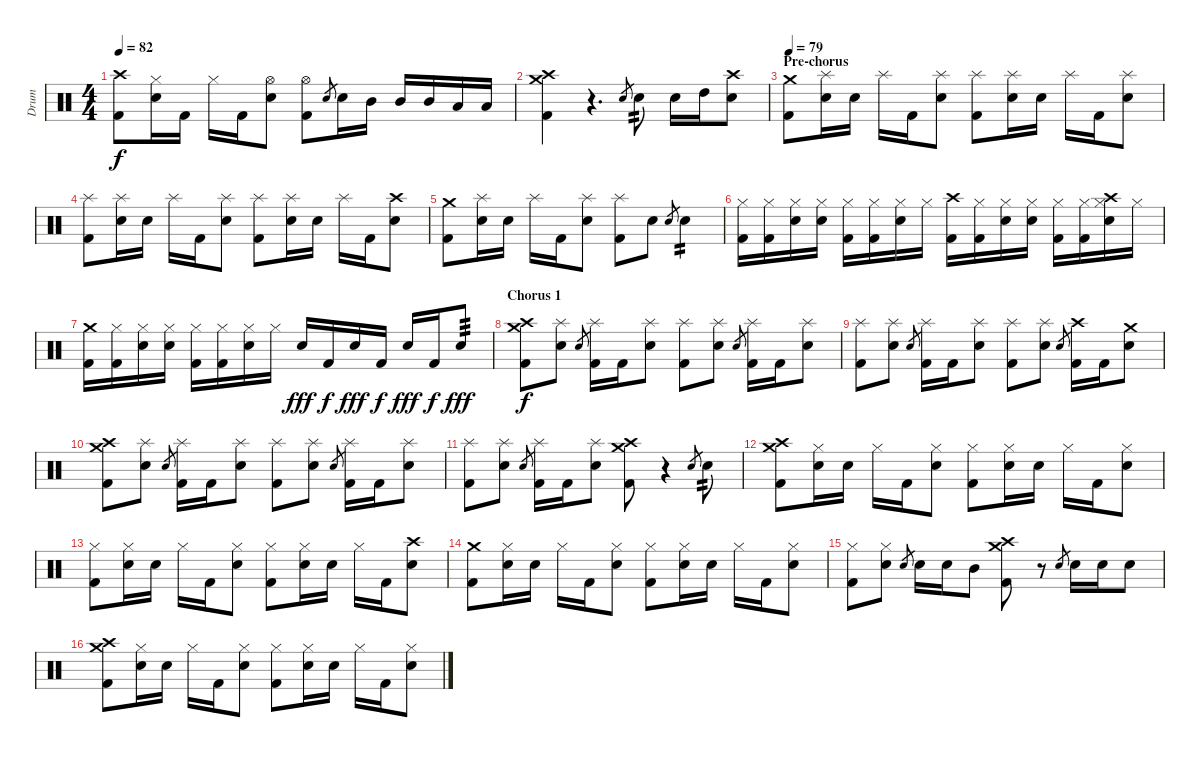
\track ("Drum" "Drum") {instrument percussion}
\staff {score}
\articulation defaults
\ts (4 4)
\tempo 82
\clef neutral
\ks c
("Kick (hit) 2" "Crash high (hit)").8{dy f} ("Hi-Hat (closed)" "Electric Snare (hit)").16 "Kick (hit) 2".16 "Hi-Hat (closed)".16 "Kick (hit) 2".16 ("Hi-Hat (open)" "Electric Snare (hit)").8 ("Hi-Hat (open)" "Kick (hit) 2").8 "Electric Snare (hit)".8{gr} "Electric Snare (hit)".16 "Mid Tom (hit)".16 "Mid Tom (hit)".16 "Mid Tom (hit)".16 "Low Tom (hit)".16 "Low Tom (hit)".16 |
("Kick (hit) 2" "Crash high (hit)" "Crash medium (hit)").4 r.4{d} "Electric Snare (hit)".8{gr} "Electric Snare (hit)".8{tp 2} "Electric Snare (hit)".16 "High Tom (hit)".16 ("Electric Snare (hit)" "Crash high (hit)").8 |
\section ("" "Pre-chorus ")
\tempo 79
("Kick (hit) 2" "Crash medium (hit)").8 ("Splash (hit)" "Electric Snare (hit)").16 "Electric Snare (hit)".16 "Splash (hit)".16 "Kick (hit) 2".16 ("Splash (hit)" "Electric Snare (hit)").8 ("Splash (hit)" "Kick (hit) 2").8 ("Splash (hit)" "Electric Snare (hit)").16 "Electric Snare (hit)".16 "Splash (hit)".16 "Kick (hit) 2".16 ("Splash (hit)" "Electric Snare (hit)").8 |
("Splash (hit)" "Kick (hit) 2").8 ("Splash (hit)" "Electric Snare (hit)").16 "Electric Snare (hit)".16 "Splash (hit)".16 "Kick (hit) 2".16 ("Splash (hit)" "Electric Snare (hit)").8 ("Splash (hit)" "Kick (hit) 2").8 ("Splash (hit)" "Electric Snare (hit)").16 "Electric Snare (hit)".16 "Splash (hit)".16 "Kick (hit) 2".16 ("Electric Snare (hit)" "Crash high (hit)").8 |
("Kick (hit) 2" "Crash medium (hit)").8 ("Splash (hit)" "Electric Snare (hit)").16 "Electric Snare (hit)".16 "Splash (hit)".16 "Kick (hit) 2".16 ("Splash (hit)" "Electric Snare (hit)").8 ("Splash (hit)" "Kick (hit) 2").8 "Electric Snare (hit)".8 "Electric Snare (hit)".8{gr} "Electric Snare (hit)".4{tp 2} |
("Hi-Hat (closed)" "Kick (hit) 2").16 ("Hi-Hat (closed)" "Kick (hit) 2").16 ("Hi-Hat (closed)" "Electric Snare (hit)").16 ("Hi-Hat (closed)" "Electric Snare (hit)").16 ("Hi-Hat (closed)" "Kick (hit) 2").16 ("Hi-Hat (closed)" "Kick (hit) 2").16 ("Hi-Hat (closed)" "Electric Snare (hit)").16 "Hi-Hat (closed)".16 ("Kick (hit) 2" "Crash high (hit)").16 ("Hi-Hat (closed)" "Kick (hit) 2").16 ("Hi-Hat (closed)" "Electric Snare (hit)").16 ("Hi-Hat (closed)" "Electric Snare (hit)").16 ("Hi-Hat (closed)" "Kick (hit) 2").16 ("Hi-Hat (closed)" "Kick (hit) 2").16 ("Hi-Hat (closed)" "Electric Snare (hit)" "Crash high (hit)").16 "Hi-Hat (closed)".16 |
("Kick (hit) 2" "Crash medium (hit)").16 ("Hi-Hat (closed)" "Kick (hit) 2").16 ("Hi-Hat (closed)" "Electric Snare (hit)").16 ("Hi-Hat (closed)" "Electric Snare (hit)").16 ("Hi-Hat (closed)" "Kick (hit) 2").16 ("Hi-Hat (closed)" "Kick (hit) 2").16 ("Hi-Hat (closed)" "Electric Snare (hit)").16 "Hi-Hat (closed)".16 "Electric Snare (hit)".16{dy fff} "Kick (hit) 2".16{dy f} "Electric Snare (hit)".16{dy fff} "Kick (hit) 2".16{dy f} "Electric Snare (hit)".16{dy fff} "Kick (hit) 2".16{dy f} "Electric Snare (hit)".8{tp 3 dy fff} |
\section ("" "Chorus 1")
("Kick (hit) 2" "Crash high (hit)" "Crash medium (hit)").8{dy f} ("Splash (hit)" "Electric Snare (hit)").8 "Electric Snare (hit)".8{gr} ("Splash (hit)" "Kick (hit) 2").16 "Kick (hit) 2".16 ("Splash (hit)" "Electric Snare (hit)").8 ("Splash (hit)" "Kick (hit) 2").8 ("Splash (hit)" "Electric Snare (hit)").8 "Electric Snare (hit)".8{gr} ("Splash (hit)" "Kick (hit) 2").16 "Kick (hit) 2".16 ("Splash (hit)" "Electric Snare (hit)").8 |
("Splash (hit)" "Kick (hit) 2").8 ("Splash (hit)" "Electric Snare (hit)").8 "Electric Snare (hit)".8{gr} ("Splash (hit)" "Kick (hit) 2").16 "Kick (hit) 2".16 ("Splash (hit)" "Electric Snare (hit)").8 ("Splash (hit)" "Kick (hit) 2").8 ("Splash (hit)" "Electric Snare (hit)").8 "Electric Snare (hit)".8{gr} ("Kick (hit) 2" "Crash high (hit)").16 "Kick (hit) 2".16 ("Electric Snare (hit)" "Crash medium (hit)").8 |
("Kick (hit) 2" "Crash high (hit)" "Crash medium (hit)").8 ("Splash (hit)" "Electric Snare (hit)").8 "Electric Snare (hit)".8{gr} ("Splash (hit)" "Kick (hit) 2").16 "Kick (hit) 2".16 ("Splash (hit)" "Electric Snare (hit)").8 ("Splash (hit)" "Kick (hit) 2").8 ("Splash (hit)" "Electric Snare (hit)").8 "Electric Snare (hit)".8{gr} ("Splash (hit)" "Kick (hit) 2").16 "Kick (hit) 2".16 ("Splash (hit)" "Electric Snare (hit)").8 |
("Splash (hit)" "Kick (hit) 2").8 ("Splash (hit)" "Electric Snare (hit)").8 "Electric Snare (hit)".8{gr} ("Splash (hit)" "Kick (hit) 2").16 "Kick (hit) 2".16 ("Splash (hit)" "Electric Snare (hit)").8 ("Kick (hit) 2" "Crash high (hit)" "Crash medium (hit)").8 r.4 "Electric Snare (hit)".8{gr} "Electric Snare (hit)".8{tp 2} |
\section ("" "")
("Kick (hit) 2" "Crash high (hit)" "Crash medium (hit)").8 ("Hi-Hat (closed)" "Electric Snare (hit)").16 "Electric Snare (hit)".16 "Hi-Hat (closed)".16 "Kick (hit) 2".16 ("Hi-Hat (closed)" "Electric Snare (hit)").8 ("Hi-Hat (closed)" "Kick (hit) 2").8 ("Hi-Hat (closed)" "Electric Snare (hit)").16 "Electric Snare (hit)".16 "Hi-Hat (closed)".16 "Kick (hit) 2".16 ("Hi-Hat (closed)" "Electric Snare (hit)").8 |
("Hi-Hat (closed)" "Kick (hit) 2").8 ("Hi-Hat (closed)" "Electric Snare (hit)").16 "Electric Snare (hit)".16 "Hi-Hat (closed)".16 "Kick (hit) 2".16 ("Hi-Hat (closed)" "Electric Snare (hit)").8 ("Hi-Hat (closed)" "Kick (hit) 2").8 ("Hi-Hat (closed)" "Electric Snare (hit)").16 "Electric Snare (hit)".16 "Hi-Hat (closed)".16 "Kick (hit) 2".16 ("Electric Snare (hit)" "Crash high (hit)").8 |
("Kick (hit) 2" "Crash medium (hit)").8 ("Hi-Hat (closed)" "Electric Snare (hit)").16 "Electric Snare (hit)".16 "Hi-Hat (closed)".16 "Kick (hit) 2".16 ("Hi-Hat (closed)" "Electric Snare (hit)").8 ("Hi-Hat (closed)" "Kick (hit) 2").8 ("Hi-Hat (closed)" "Electric Snare (hit)").16 "Electric Snare (hit)".16 "Hi-Hat (closed)".16 "Kick (hit) 2".16 ("Hi-Hat (closed)" "Electric Snare (hit)").8 |
("Hi-Hat (closed)" "Kick (hit) 2").8 ("Hi-Hat (closed)" "Electric Snare (hit)").8 "Electric Snare (hit)".8{gr} "Electric Snare (hit)".16 "Electric Snare (hit)".16 "Mid Tom (hit)".8 ("Kick (hit) 2" "Crash high (hit)" "Crash medium (hit)").8 r.8 "Electric Snare (hit)".8{gr} "Electric Snare (hit)".16 "Electric Snare (hit)".16 "Electric Snare (hit)".8 |
\section ("" "")
("Kick (hit) 2" "Crash high (hit)" "Crash medium (hit)").8 ("Hi-Hat (closed)" "Electric Snare (hit)").16 "Electric Snare (hit)".16 "Hi-Hat (closed)".16 "Kick (hit) 2".16 ("Hi-Hat (closed)" "Electric Snare (hit)").8 ("Hi-Hat (closed)" "Kick (hit) 2").8 ("Hi-Hat (closed)" "Electric Snare (hit)").16 "Electric Snare (hit)".16 "Hi-Hat (closed)".16 "Kick (hit) 2".16 ("Hi-Hat (closed)" "Electric Snare (hit)").8
